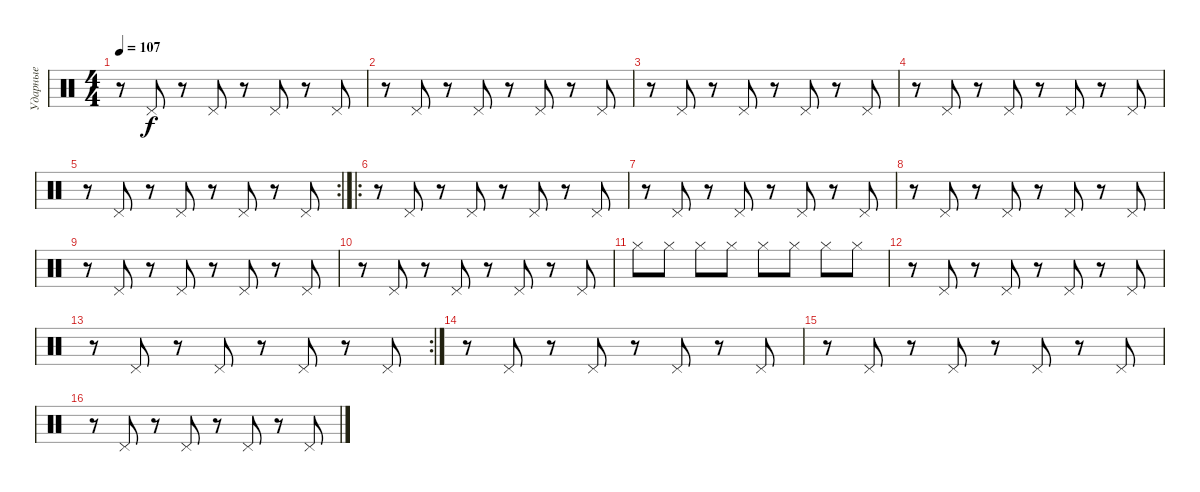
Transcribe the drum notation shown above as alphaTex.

\track ("Ударные" "Ударные") {instrument percussion}
\staff {score}
\articulation defaults
\ts (4 4)
\tempo 107
\clef neutral
\ks c
r.8{dy f} "Pedal Hi-Hat (hit)".8 r.8 "Pedal Hi-Hat (hit)".8 r.8 "Pedal Hi-Hat (hit)".8 r.8 "Pedal Hi-Hat (hit)".8 |
r.8 "Pedal Hi-Hat (hit)".8 r.8 "Pedal Hi-Hat (hit)".8 r.8 "Pedal Hi-Hat (hit)".8 r.8 "Pedal Hi-Hat (hit)".8 |
r.8 "Pedal Hi-Hat (hit)".8 r.8 "Pedal Hi-Hat (hit)".8 r.8 "Pedal Hi-Hat (hit)".8 r.8 "Pedal Hi-Hat (hit)".8 |
r.8 "Pedal Hi-Hat (hit)".8 r.8 "Pedal Hi-Hat (hit)".8 r.8 "Pedal Hi-Hat (hit)".8 r.8 "Pedal Hi-Hat (hit)".8 |
\rc 2
r.8 "Pedal Hi-Hat (hit)".8 r.8 "Pedal Hi-Hat (hit)".8 r.8 "Pedal Hi-Hat (hit)".8 r.8 "Pedal Hi-Hat (hit)".8 |
\ro
r.8 "Pedal Hi-Hat (hit)".8 r.8 "Pedal Hi-Hat (hit)".8 r.8 "Pedal Hi-Hat (hit)".8 r.8 "Pedal Hi-Hat (hit)".8 |
r.8 "Pedal Hi-Hat (hit)".8 r.8 "Pedal Hi-Hat (hit)".8 r.8 "Pedal Hi-Hat (hit)".8 r.8 "Pedal Hi-Hat (hit)".8 |
r.8 "Pedal Hi-Hat (hit)".8 r.8 "Pedal Hi-Hat (hit)".8 r.8 "Pedal Hi-Hat (hit)".8 r.8 "Pedal Hi-Hat (hit)".8 |
r.8 "Pedal Hi-Hat (hit)".8 r.8 "Pedal Hi-Hat (hit)".8 r.8 "Pedal Hi-Hat (hit)".8 r.8 "Pedal Hi-Hat (hit)".8 |
r.8 "Pedal Hi-Hat (hit)".8 r.8 "Pedal Hi-Hat (hit)".8 r.8 "Pedal Hi-Hat (hit)".8 r.8 "Pedal Hi-Hat (hit)".8 |
"Hi-Hat (closed)".8 "Hi-Hat (closed)".8 "Hi-Hat (closed)".8 "Hi-Hat (closed)".8 "Hi-Hat (closed)".8 "Hi-Hat (closed)".8 "Hi-Hat (closed)".8 "Hi-Hat (closed)".8 |
r.8 "Pedal Hi-Hat (hit)".8 r.8 "Pedal Hi-Hat (hit)".8 r.8 "Pedal Hi-Hat (hit)".8 r.8 "Pedal Hi-Hat (hit)".8 |
\rc 2
r.8 "Pedal Hi-Hat (hit)".8 r.8 "Pedal Hi-Hat (hit)".8 r.8 "Pedal Hi-Hat (hit)".8 r.8 "Pedal Hi-Hat (hit)".8 |
r.8 "Pedal Hi-Hat (hit)".8 r.8 "Pedal Hi-Hat (hit)".8 r.8 "Pedal Hi-Hat (hit)".8 r.8 "Pedal Hi-Hat (hit)".8 |
r.8 "Pedal Hi-Hat (hit)".8 r.8 "Pedal Hi-Hat (hit)".8 r.8 "Pedal Hi-Hat (hit)".8 r.8 "Pedal Hi-Hat (hit)".8 |
r.8 "Pedal Hi-Hat (hit)".8 r.8 "Pedal Hi-Hat (hit)".8 r.8 "Pedal Hi-Hat (hit)".8 r.8 "Pedal Hi-Hat (hit)".8
